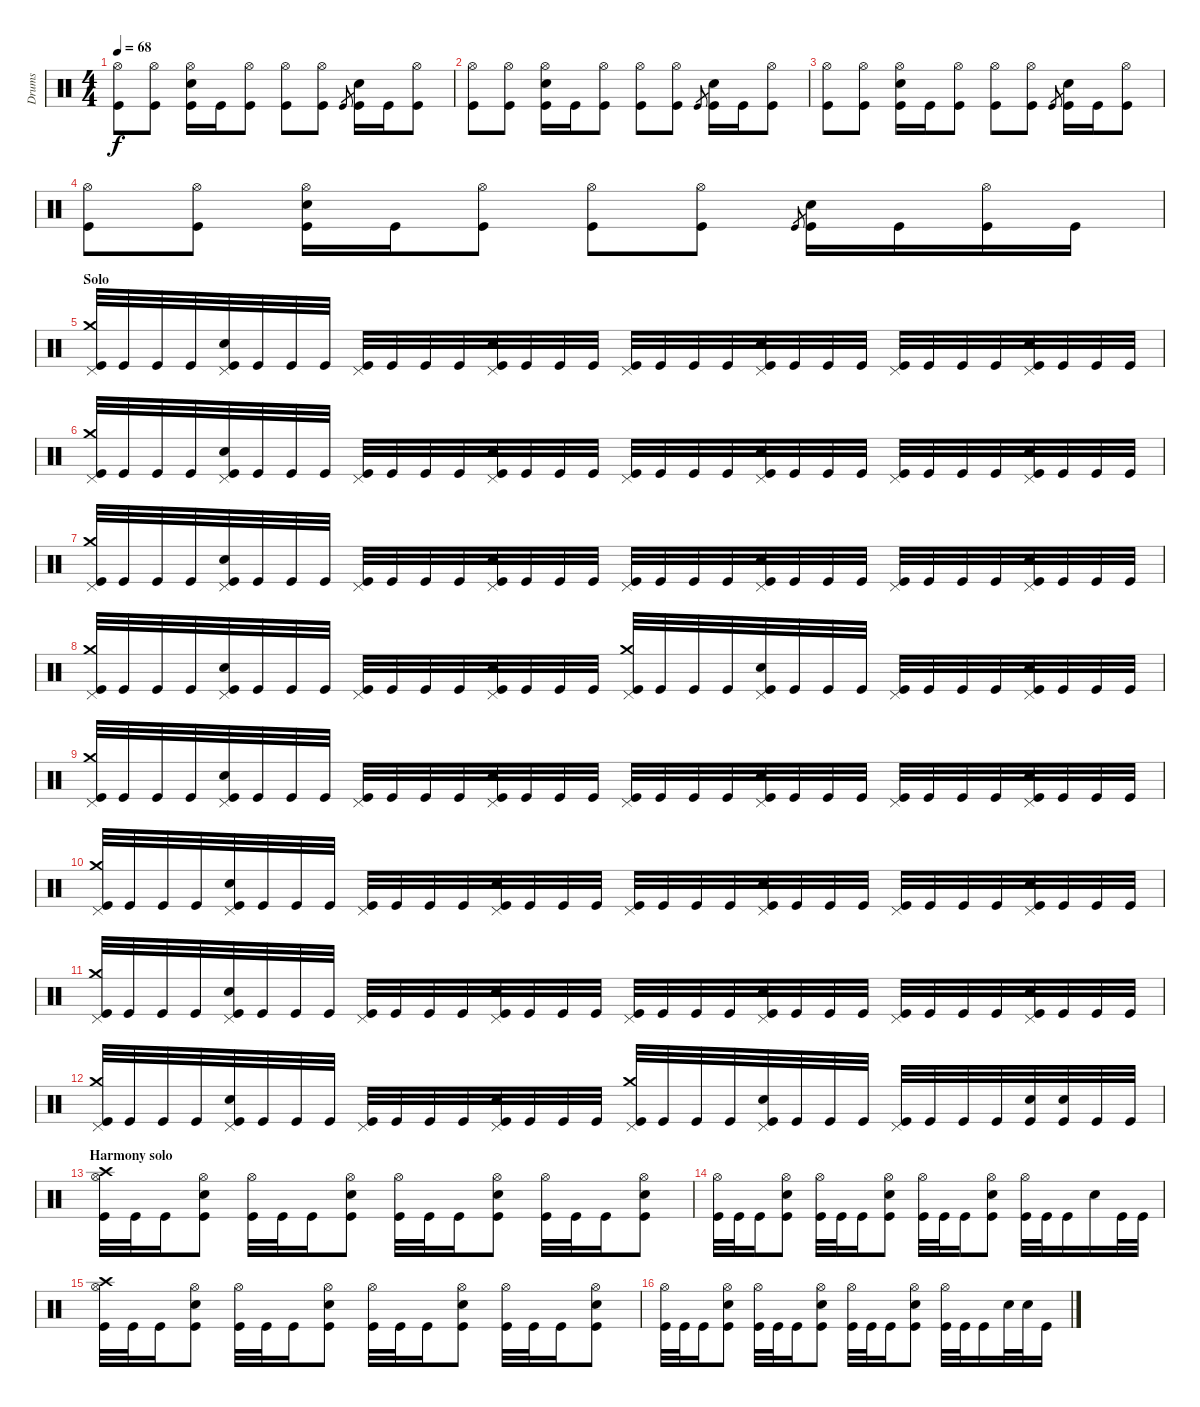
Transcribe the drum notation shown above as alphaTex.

\track ("Drums" "Drums") {instrument percussion}
\staff {score}
\articulation defaults
\ts (4 4)
\tempo 68
\clef neutral
\ks c
("Hi-Hat (open)" "Kick (hit)").8{dy f} ("Hi-Hat (open)" "Kick (hit)").8 ("Hi-Hat (open)" "Snare (hit) 2" "Kick (hit)").16 "Kick (hit)".16 ("Hi-Hat (open)" "Kick (hit)").8 ("Hi-Hat (open)" "Kick (hit)").8 ("Hi-Hat (open)" "Kick (hit)").8 "Kick (hit)".8{gr} ("Snare (hit) 2" "Kick (hit)").16 "Kick (hit)".16 ("Hi-Hat (open)" "Kick (hit)").8 |
("Hi-Hat (open)" "Kick (hit)").8 ("Hi-Hat (open)" "Kick (hit)").8 ("Hi-Hat (open)" "Snare (hit) 2" "Kick (hit)").16 "Kick (hit)".16 ("Hi-Hat (open)" "Kick (hit)").8 ("Hi-Hat (open)" "Kick (hit)").8 ("Hi-Hat (open)" "Kick (hit)").8 "Kick (hit)".8{gr} ("Snare (hit) 2" "Kick (hit)").16 "Kick (hit)".16 ("Hi-Hat (open)" "Kick (hit)").8 |
("Hi-Hat (open)" "Kick (hit)").8 ("Hi-Hat (open)" "Kick (hit)").8 ("Hi-Hat (open)" "Snare (hit) 2" "Kick (hit)").16 "Kick (hit)".16 ("Hi-Hat (open)" "Kick (hit)").8 ("Hi-Hat (open)" "Kick (hit)").8 ("Hi-Hat (open)" "Kick (hit)").8 "Kick (hit)".8{gr} ("Snare (hit) 2" "Kick (hit)").16 "Kick (hit)".16 ("Hi-Hat (open)" "Kick (hit)").8 |
("Hi-Hat (open)" "Kick (hit)").8 ("Hi-Hat (open)" "Kick (hit)").8 ("Hi-Hat (open)" "Snare (hit) 2" "Kick (hit)").16 "Kick (hit)".16 ("Hi-Hat (open)" "Kick (hit)").8 ("Hi-Hat (open)" "Kick (hit)").8 ("Hi-Hat (open)" "Kick (hit)").8 "Kick (hit)".8{gr} ("Snare (hit) 2" "Kick (hit)").16 "Kick (hit)".16 ("Hi-Hat (open)" "Kick (hit)").16 "Kick (hit)".16 |
\section ("" "Solo")
("Crash medium (hit)" "Pedal Hi-Hat (hit)" "Kick (hit)").32 "Kick (hit)".32 "Kick (hit)".32 "Kick (hit)".32 ("Pedal Hi-Hat (hit)" "Snare (hit) 2" "Kick (hit)").32 "Kick (hit)".32 "Kick (hit)".32 "Kick (hit)".32 ("Pedal Hi-Hat (hit)" "Kick (hit)").32 "Kick (hit)".32 "Kick (hit)".32 "Kick (hit)".32 ("Pedal Hi-Hat (hit)" "Snare (hit) 2" "Kick (hit)").32 "Kick (hit)".32 "Kick (hit)".32 "Kick (hit)".32 ("Pedal Hi-Hat (hit)" "Kick (hit)").32 "Kick (hit)".32 "Kick (hit)".32 "Kick (hit)".32 ("Pedal Hi-Hat (hit)" "Snare (hit) 2" "Kick (hit)").32 "Kick (hit)".32 "Kick (hit)".32 "Kick (hit)".32 ("Pedal Hi-Hat (hit)" "Kick (hit)").32 "Kick (hit)".32 "Kick (hit)".32 "Kick (hit)".32 ("Pedal Hi-Hat (hit)" "Snare (hit) 2" "Kick (hit)").32 "Kick (hit)".32 "Kick (hit)".32 "Kick (hit)".32 |
("Crash medium (hit)" "Pedal Hi-Hat (hit)" "Kick (hit)").32 "Kick (hit)".32 "Kick (hit)".32 "Kick (hit)".32 ("Pedal Hi-Hat (hit)" "Snare (hit) 2" "Kick (hit)").32 "Kick (hit)".32 "Kick (hit)".32 "Kick (hit)".32 ("Pedal Hi-Hat (hit)" "Kick (hit)").32 "Kick (hit)".32 "Kick (hit)".32 "Kick (hit)".32 ("Pedal Hi-Hat (hit)" "Snare (hit) 2" "Kick (hit)").32 "Kick (hit)".32 "Kick (hit)".32 "Kick (hit)".32 ("Pedal Hi-Hat (hit)" "Kick (hit)").32 "Kick (hit)".32 "Kick (hit)".32 "Kick (hit)".32 ("Pedal Hi-Hat (hit)" "Snare (hit) 2" "Kick (hit)").32 "Kick (hit)".32 "Kick (hit)".32 "Kick (hit)".32 ("Pedal Hi-Hat (hit)" "Kick (hit)").32 "Kick (hit)".32 "Kick (hit)".32 "Kick (hit)".32 ("Pedal Hi-Hat (hit)" "Snare (hit) 2" "Kick (hit)").32 "Kick (hit)".32 "Kick (hit)".32 "Kick (hit)".32 |
("Crash medium (hit)" "Pedal Hi-Hat (hit)" "Kick (hit)").32 "Kick (hit)".32 "Kick (hit)".32 "Kick (hit)".32 ("Pedal Hi-Hat (hit)" "Snare (hit) 2" "Kick (hit)").32 "Kick (hit)".32 "Kick (hit)".32 "Kick (hit)".32 ("Pedal Hi-Hat (hit)" "Kick (hit)").32 "Kick (hit)".32 "Kick (hit)".32 "Kick (hit)".32 ("Pedal Hi-Hat (hit)" "Snare (hit) 2" "Kick (hit)").32 "Kick (hit)".32 "Kick (hit)".32 "Kick (hit)".32 ("Pedal Hi-Hat (hit)" "Kick (hit)").32 "Kick (hit)".32 "Kick (hit)".32 "Kick (hit)".32 ("Pedal Hi-Hat (hit)" "Snare (hit) 2" "Kick (hit)").32 "Kick (hit)".32 "Kick (hit)".32 "Kick (hit)".32 ("Pedal Hi-Hat (hit)" "Kick (hit)").32 "Kick (hit)".32 "Kick (hit)".32 "Kick (hit)".32 ("Pedal Hi-Hat (hit)" "Snare (hit) 2" "Kick (hit)").32 "Kick (hit)".32 "Kick (hit)".32 "Kick (hit)".32 |
("Crash medium (hit)" "Pedal Hi-Hat (hit)" "Kick (hit)").32 "Kick (hit)".32 "Kick (hit)".32 "Kick (hit)".32 ("Pedal Hi-Hat (hit)" "Snare (hit) 2" "Kick (hit)").32 "Kick (hit)".32 "Kick (hit)".32 "Kick (hit)".32 ("Pedal Hi-Hat (hit)" "Kick (hit)").32 "Kick (hit)".32 "Kick (hit)".32 "Kick (hit)".32 ("Pedal Hi-Hat (hit)" "Snare (hit) 2" "Kick (hit)").32 "Kick (hit)".32 "Kick (hit)".32 "Kick (hit)".32 ("Crash medium (hit)" "Pedal Hi-Hat (hit)" "Kick (hit)").32 "Kick (hit)".32 "Kick (hit)".32 "Kick (hit)".32 ("Pedal Hi-Hat (hit)" "Snare (hit) 2" "Kick (hit)").32 "Kick (hit)".32 "Kick (hit)".32 "Kick (hit)".32 ("Pedal Hi-Hat (hit)" "Kick (hit)").32 "Kick (hit)".32 "Kick (hit)".32 "Kick (hit)".32 ("Pedal Hi-Hat (hit)" "Snare (hit) 2" "Kick (hit)").32 "Kick (hit)".32 "Kick (hit)".32 "Kick (hit)".32 |
("Crash medium (hit)" "Pedal Hi-Hat (hit)" "Kick (hit)").32 "Kick (hit)".32 "Kick (hit)".32 "Kick (hit)".32 ("Pedal Hi-Hat (hit)" "Snare (hit) 2" "Kick (hit)").32 "Kick (hit)".32 "Kick (hit)".32 "Kick (hit)".32 ("Pedal Hi-Hat (hit)" "Kick (hit)").32 "Kick (hit)".32 "Kick (hit)".32 "Kick (hit)".32 ("Pedal Hi-Hat (hit)" "Snare (hit) 2" "Kick (hit)").32 "Kick (hit)".32 "Kick (hit)".32 "Kick (hit)".32 ("Pedal Hi-Hat (hit)" "Kick (hit)").32 "Kick (hit)".32 "Kick (hit)".32 "Kick (hit)".32 ("Pedal Hi-Hat (hit)" "Snare (hit) 2" "Kick (hit)").32 "Kick (hit)".32 "Kick (hit)".32 "Kick (hit)".32 ("Pedal Hi-Hat (hit)" "Kick (hit)").32 "Kick (hit)".32 "Kick (hit)".32 "Kick (hit)".32 ("Pedal Hi-Hat (hit)" "Snare (hit) 2" "Kick (hit)").32 "Kick (hit)".32 "Kick (hit)".32 "Kick (hit)".32 |
("Crash medium (hit)" "Pedal Hi-Hat (hit)" "Kick (hit)").32 "Kick (hit)".32 "Kick (hit)".32 "Kick (hit)".32 ("Pedal Hi-Hat (hit)" "Snare (hit) 2" "Kick (hit)").32 "Kick (hit)".32 "Kick (hit)".32 "Kick (hit)".32 ("Pedal Hi-Hat (hit)" "Kick (hit)").32 "Kick (hit)".32 "Kick (hit)".32 "Kick (hit)".32 ("Pedal Hi-Hat (hit)" "Snare (hit) 2" "Kick (hit)").32 "Kick (hit)".32 "Kick (hit)".32 "Kick (hit)".32 ("Pedal Hi-Hat (hit)" "Kick (hit)").32 "Kick (hit)".32 "Kick (hit)".32 "Kick (hit)".32 ("Pedal Hi-Hat (hit)" "Snare (hit) 2" "Kick (hit)").32 "Kick (hit)".32 "Kick (hit)".32 "Kick (hit)".32 ("Pedal Hi-Hat (hit)" "Kick (hit)").32 "Kick (hit)".32 "Kick (hit)".32 "Kick (hit)".32 ("Pedal Hi-Hat (hit)" "Snare (hit) 2" "Kick (hit)").32 "Kick (hit)".32 "Kick (hit)".32 "Kick (hit)".32 |
("Crash medium (hit)" "Pedal Hi-Hat (hit)" "Kick (hit)").32 "Kick (hit)".32 "Kick (hit)".32 "Kick (hit)".32 ("Pedal Hi-Hat (hit)" "Snare (hit) 2" "Kick (hit)").32 "Kick (hit)".32 "Kick (hit)".32 "Kick (hit)".32 ("Pedal Hi-Hat (hit)" "Kick (hit)").32 "Kick (hit)".32 "Kick (hit)".32 "Kick (hit)".32 ("Pedal Hi-Hat (hit)" "Snare (hit) 2" "Kick (hit)").32 "Kick (hit)".32 "Kick (hit)".32 "Kick (hit)".32 ("Pedal Hi-Hat (hit)" "Kick (hit)").32 "Kick (hit)".32 "Kick (hit)".32 "Kick (hit)".32 ("Pedal Hi-Hat (hit)" "Snare (hit) 2" "Kick (hit)").32 "Kick (hit)".32 "Kick (hit)".32 "Kick (hit)".32 ("Pedal Hi-Hat (hit)" "Kick (hit)").32 "Kick (hit)".32 "Kick (hit)".32 "Kick (hit)".32 ("Pedal Hi-Hat (hit)" "Snare (hit) 2" "Kick (hit)").32 "Kick (hit)".32 "Kick (hit)".32 "Kick (hit)".32 |
("Crash medium (hit)" "Pedal Hi-Hat (hit)" "Kick (hit)").32 "Kick (hit)".32 "Kick (hit)".32 "Kick (hit)".32 ("Pedal Hi-Hat (hit)" "Snare (hit) 2" "Kick (hit)").32 "Kick (hit)".32 "Kick (hit)".32 "Kick (hit)".32 ("Pedal Hi-Hat (hit)" "Kick (hit)").32 "Kick (hit)".32 "Kick (hit)".32 "Kick (hit)".32 ("Pedal Hi-Hat (hit)" "Snare (hit) 2" "Kick (hit)").32 "Kick (hit)".32 "Kick (hit)".32 "Kick (hit)".32 ("Crash medium (hit)" "Pedal Hi-Hat (hit)" "Kick (hit)").32 "Kick (hit)".32 "Kick (hit)".32 "Kick (hit)".32 ("Pedal Hi-Hat (hit)" "Snare (hit) 2" "Kick (hit)").32 "Kick (hit)".32 "Kick (hit)".32 "Kick (hit)".32 ("Pedal Hi-Hat (hit)" "Kick (hit)").32 "Kick (hit)".32 "Kick (hit)".32 "Kick (hit)".32 ("Snare (hit) 2" "Kick (hit)").32 ("Snare (hit) 2" "Kick (hit)").32 "Kick (hit)".32 "Kick (hit)".32 |
\section ("" "Harmony solo")
("Crash high (hit)" "Hi-Hat (open)" "Kick (hit)").32 "Kick (hit)".32 "Kick (hit)".16 ("Hi-Hat (open)" "Snare (hit) 2" "Kick (hit)").8 ("Hi-Hat (open)" "Kick (hit)").32 "Kick (hit)".32 "Kick (hit)".16 ("Hi-Hat (open)" "Snare (hit) 2" "Kick (hit)").8 ("Hi-Hat (open)" "Kick (hit)").32 "Kick (hit)".32 "Kick (hit)".16 ("Hi-Hat (open)" "Snare (hit) 2" "Kick (hit)").8 ("Hi-Hat (open)" "Kick (hit)").32 "Kick (hit)".32 "Kick (hit)".16 ("Hi-Hat (open)" "Snare (hit) 2" "Kick (hit)").8 |
("Hi-Hat (open)" "Kick (hit)").32 "Kick (hit)".32 "Kick (hit)".16 ("Hi-Hat (open)" "Snare (hit) 2" "Kick (hit)").8 ("Hi-Hat (open)" "Kick (hit)").32 "Kick (hit)".32 "Kick (hit)".16 ("Hi-Hat (open)" "Snare (hit) 2" "Kick (hit)").8 ("Hi-Hat (open)" "Kick (hit)").32 "Kick (hit)".32 "Kick (hit)".16 ("Hi-Hat (open)" "Snare (hit) 2" "Kick (hit)").8 ("Hi-Hat (open)" "Kick (hit)").32 "Kick (hit)".32 "Kick (hit)".16 "Snare (hit) 2".16 "Kick (hit)".32 "Kick (hit)".32 |
("Crash high (hit)" "Hi-Hat (open)" "Kick (hit)").32 "Kick (hit)".32 "Kick (hit)".16 ("Hi-Hat (open)" "Snare (hit) 2" "Kick (hit)").8 ("Hi-Hat (open)" "Kick (hit)").32 "Kick (hit)".32 "Kick (hit)".16 ("Hi-Hat (open)" "Snare (hit) 2" "Kick (hit)").8 ("Hi-Hat (open)" "Kick (hit)").32 "Kick (hit)".32 "Kick (hit)".16 ("Hi-Hat (open)" "Snare (hit) 2" "Kick (hit)").8 ("Hi-Hat (open)" "Kick (hit)").32 "Kick (hit)".32 "Kick (hit)".16 ("Hi-Hat (open)" "Snare (hit) 2" "Kick (hit)").8 |
("Hi-Hat (open)" "Kick (hit)").32 "Kick (hit)".32 "Kick (hit)".16 ("Hi-Hat (open)" "Snare (hit) 2" "Kick (hit)").8 ("Hi-Hat (open)" "Kick (hit)").32 "Kick (hit)".32 "Kick (hit)".16 ("Hi-Hat (open)" "Snare (hit) 2" "Kick (hit)").8 ("Hi-Hat (open)" "Kick (hit)").32 "Kick (hit)".32 "Kick (hit)".16 ("Hi-Hat (open)" "Snare (hit) 2" "Kick (hit)").8 ("Hi-Hat (open)" "Kick (hit)").32 "Kick (hit)".32 "Kick (hit)".16 "Snare (hit) 2".32 "Snare (hit) 2".32 "Kick (hit)".16
